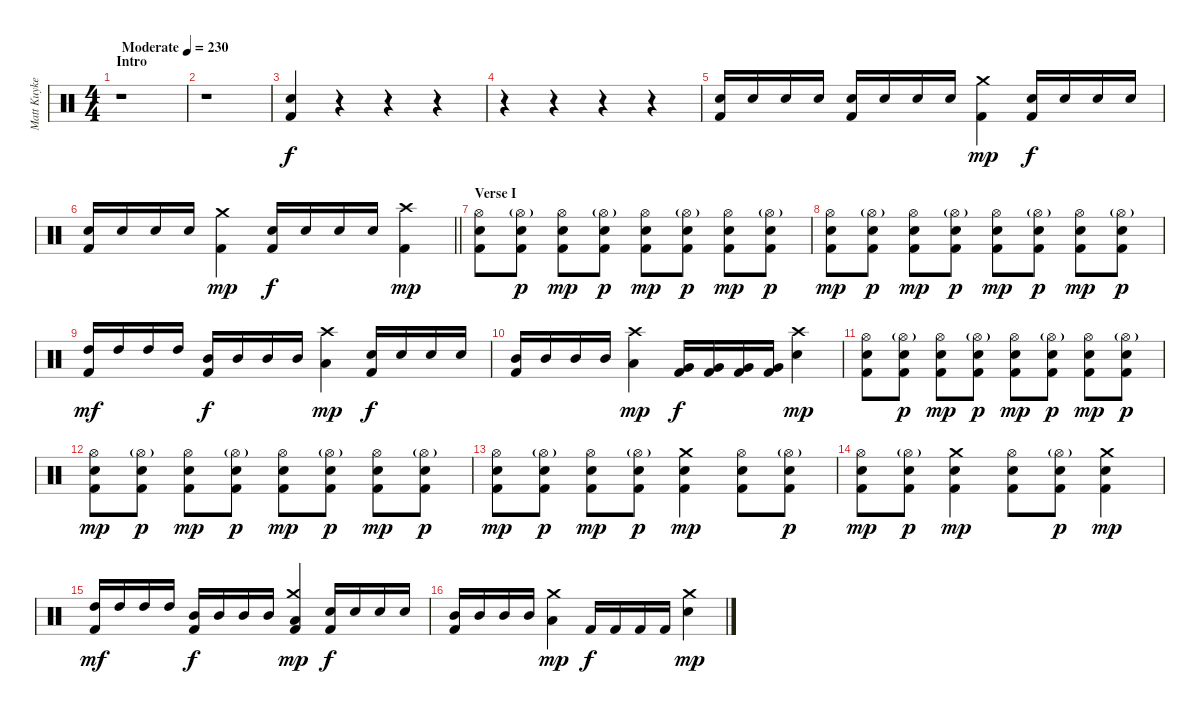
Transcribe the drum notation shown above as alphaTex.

\track ("Matt Kuykendall" "Matt Kuyke") {instrument percussion}
\staff {score}
\articulation defaults
\ts (4 4)
\section ("" "Intro")
\tempo (230 "Moderate")
\clef neutral
\ks c
r.1{dy f} |
r.1 |
("Electric Snare (hit)" "Kick (hit) 2").4 r.4 r.4 r.4 |
r.4 r.4 r.4 r.4 |
("Electric Snare (hit)" "Kick (hit) 2").16 "Electric Snare (hit)".16 "Electric Snare (hit)".16 "Electric Snare (hit)".16 ("Electric Snare (hit)" "Kick (hit) 2").16 "Electric Snare (hit)".16 "Electric Snare (hit)".16 "Electric Snare (hit)".16 ("Crash medium (hit)" "Kick (hit) 2").4{dy mp} ("Electric Snare (hit)" "Kick (hit) 2").16{dy f} "Electric Snare (hit)".16 "Electric Snare (hit)".16 "Electric Snare (hit)".16 |
\barLineRight lightlight
("Electric Snare (hit)" "Kick (hit) 2").16 "Electric Snare (hit)".16 "Electric Snare (hit)".16 "Electric Snare (hit)".16 ("Crash medium (hit)" "Kick (hit) 2").4{dy mp} ("Electric Snare (hit)" "Kick (hit) 2").16{dy f} "Electric Snare (hit)".16 "Electric Snare (hit)".16 "Electric Snare (hit)".16 ("Crash high (hit)" "Kick (hit) 2").4{dy mp} |
\section ("" "Verse I")
("Hi-Hat (open)" "Electric Snare (hit)" "Kick (hit) 2").8 ("Hi-Hat (open)"{g} "Electric Snare (hit)" "Kick (hit) 2").8{dy p} ("Hi-Hat (open)" "Electric Snare (hit)" "Kick (hit) 2").8{dy mp} ("Hi-Hat (open)"{g} "Electric Snare (hit)" "Kick (hit) 2").8{dy p} ("Hi-Hat (open)" "Electric Snare (hit)" "Kick (hit) 2").8{dy mp} ("Hi-Hat (open)"{g} "Electric Snare (hit)" "Kick (hit) 2").8{dy p} ("Hi-Hat (open)" "Electric Snare (hit)" "Kick (hit) 2").8{dy mp} ("Hi-Hat (open)"{g} "Electric Snare (hit)" "Kick (hit) 2").8{dy p} |
("Hi-Hat (open)" "Electric Snare (hit)" "Kick (hit) 2").8{dy mp} ("Hi-Hat (open)"{g} "Electric Snare (hit)" "Kick (hit) 2").8{dy p} ("Hi-Hat (open)" "Electric Snare (hit)" "Kick (hit) 2").8{dy mp} ("Hi-Hat (open)"{g} "Electric Snare (hit)" "Kick (hit) 2").8{dy p} ("Hi-Hat (open)" "Electric Snare (hit)" "Kick (hit) 2").8{dy mp} ("Hi-Hat (open)"{g} "Electric Snare (hit)" "Kick (hit) 2").8{dy p} ("Hi-Hat (open)" "Electric Snare (hit)" "Kick (hit) 2").8{dy mp} ("Hi-Hat (open)"{g} "Electric Snare (hit)" "Kick (hit) 2").8{dy p} |
("High Tom (hit)" "Kick (hit) 2").16{dy mf} "High Tom (hit)".16 "High Tom (hit)".16 "High Tom (hit)".16 ("Mid Tom (hit)" "Kick (hit) 2").16{dy f} "Mid Tom (hit)".16 "Mid Tom (hit)".16 "Mid Tom (hit)".16 ("Crash high (hit)" "Low Tom (hit)").4{dy mp} ("Electric Snare (hit)" "Kick (hit) 2").16{dy f} "Electric Snare (hit)".16 "Electric Snare (hit)".16 "Electric Snare (hit)".16 |
("Mid Tom (hit)" "Kick (hit) 2").16 "Mid Tom (hit)".16 "Mid Tom (hit)".16 "Mid Tom (hit)".16 ("Crash high (hit)" "Low Tom (hit)").4{dy mp} ("Very Low Tom (hit)" "Kick (hit) 2").16{dy f} ("Very Low Tom (hit)" "Kick (hit) 2").16 ("Very Low Tom (hit)" "Kick (hit) 2").16 ("Very Low Tom (hit)" "Kick (hit) 2").16 ("Crash high (hit)" "Electric Snare (hit)").4{dy mp} |
("Hi-Hat (open)" "Electric Snare (hit)" "Kick (hit) 2").8 ("Hi-Hat (open)"{g} "Electric Snare (hit)" "Kick (hit) 2").8{dy p} ("Hi-Hat (open)" "Electric Snare (hit)" "Kick (hit) 2").8{dy mp} ("Hi-Hat (open)"{g} "Electric Snare (hit)" "Kick (hit) 2").8{dy p} ("Hi-Hat (open)" "Electric Snare (hit)" "Kick (hit) 2").8{dy mp} ("Hi-Hat (open)"{g} "Electric Snare (hit)" "Kick (hit) 2").8{dy p} ("Hi-Hat (open)" "Electric Snare (hit)" "Kick (hit) 2").8{dy mp} ("Hi-Hat (open)"{g} "Electric Snare (hit)" "Kick (hit) 2").8{dy p} |
("Hi-Hat (open)" "Electric Snare (hit)" "Kick (hit) 2").8{dy mp} ("Hi-Hat (open)"{g} "Electric Snare (hit)" "Kick (hit) 2").8{dy p} ("Hi-Hat (open)" "Electric Snare (hit)" "Kick (hit) 2").8{dy mp} ("Hi-Hat (open)"{g} "Electric Snare (hit)" "Kick (hit) 2").8{dy p} ("Hi-Hat (open)" "Electric Snare (hit)" "Kick (hit) 2").8{dy mp} ("Hi-Hat (open)"{g} "Electric Snare (hit)" "Kick (hit) 2").8{dy p} ("Hi-Hat (open)" "Electric Snare (hit)" "Kick (hit) 2").8{dy mp} ("Hi-Hat (open)"{g} "Electric Snare (hit)" "Kick (hit) 2").8{dy p} |
("Hi-Hat (open)" "Electric Snare (hit)" "Kick (hit) 2").8{dy mp} ("Hi-Hat (open)"{g} "Electric Snare (hit)" "Kick (hit) 2").8{dy p} ("Hi-Hat (open)" "Electric Snare (hit)" "Kick (hit) 2").8{dy mp} ("Hi-Hat (open)"{g} "Electric Snare (hit)" "Kick (hit) 2").8{dy p} ("Crash medium (hit)" "Electric Snare (hit)" "Kick (hit) 2").4{dy mp} ("Hi-Hat (open)" "Electric Snare (hit)" "Kick (hit) 2").8 ("Hi-Hat (open)"{g} "Electric Snare (hit)" "Kick (hit) 2").8{dy p} |
("Hi-Hat (open)" "Electric Snare (hit)" "Kick (hit) 2").8{dy mp} ("Hi-Hat (open)"{g} "Electric Snare (hit)" "Kick (hit) 2").8{dy p} ("Crash medium (hit)" "Electric Snare (hit)" "Kick (hit) 2").4{dy mp} ("Hi-Hat (open)" "Electric Snare (hit)" "Kick (hit) 2").8 ("Hi-Hat (open)"{g} "Electric Snare (hit)" "Kick (hit) 2").8{dy p} ("Crash medium (hit)" "Electric Snare (hit)" "Kick (hit) 2").4{dy mp} |
("High Tom (hit)" "Kick (hit) 2").16{dy mf} "High Tom (hit)".16 "High Tom (hit)".16 "High Tom (hit)".16 ("Mid Tom (hit)" "Kick (hit) 2").16{dy f} "Mid Tom (hit)".16 "Mid Tom (hit)".16 "Mid Tom (hit)".16 ("Crash medium (hit)" "Low Tom (hit)" "Kick (hit) 2").4{dy mp} ("Electric Snare (hit)" "Kick (hit) 2").16{dy f} "Electric Snare (hit)".16 "Electric Snare (hit)".16 "Electric Snare (hit)".16 |
("Mid Tom (hit)" "Kick (hit) 2").16 "Mid Tom (hit)".16 "Mid Tom (hit)".16 "Mid Tom (hit)".16 ("Crash medium (hit)" "Low Tom (hit)").4{dy mp} "Kick (hit) 2".16{dy f} "Kick (hit) 2".16 "Kick (hit) 2".16 "Kick (hit) 2".16 ("Crash medium (hit)" "Electric Snare (hit)").4{dy mp}
